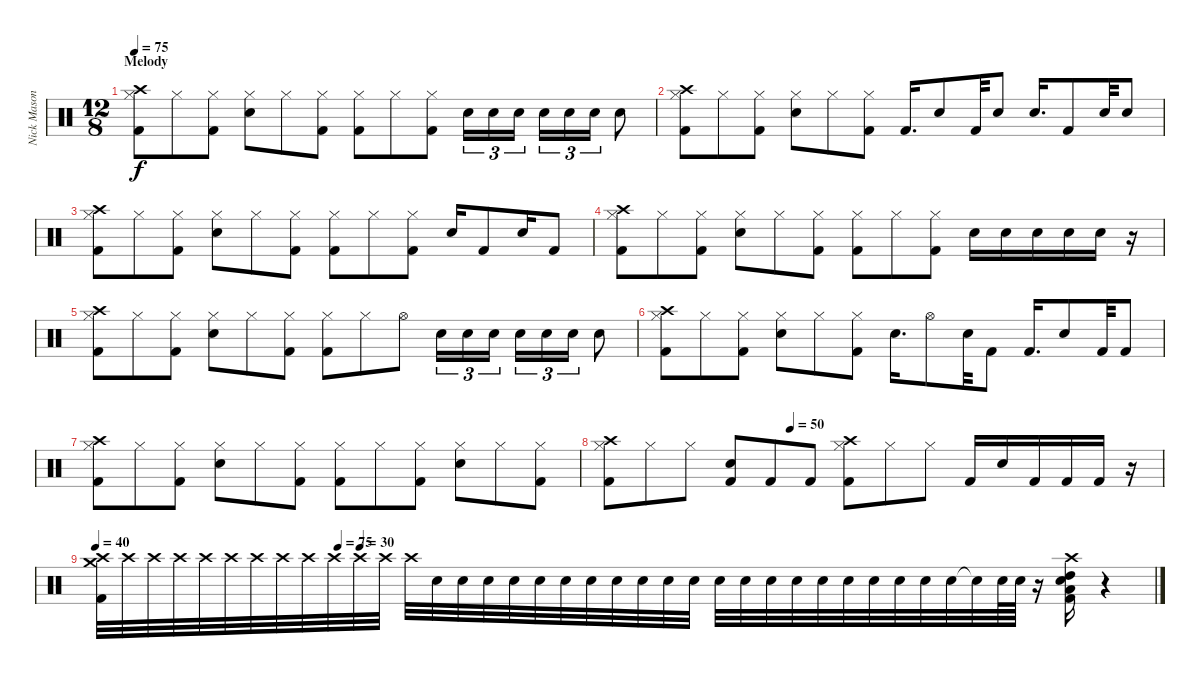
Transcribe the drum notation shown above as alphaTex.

\track ("Nick Mason (Drums)" "Nick Mason") {instrument percussion}
\staff {score}
\articulation defaults
\ts (12 8)
\section ("" "Melody")
\tempo 75
\clef neutral
\ks c
("Crash high (hit)" "Hi-Hat (closed)" "Kick (hit) 2").8{dy f} "Hi-Hat (closed)".8 ("Hi-Hat (closed)" "Kick (hit) 2").8 ("Hi-Hat (closed)" "Snare (hit) 2").8 "Hi-Hat (closed)".8 ("Hi-Hat (closed)" "Kick (hit) 2").8 ("Hi-Hat (closed)" "Kick (hit) 2").8 "Hi-Hat (closed)".8 ("Hi-Hat (closed)" "Kick (hit) 2").8 "Snare (hit) 2".16{tu (3 2)} "Snare (hit) 2".16{tu (3 2)} "Snare (hit) 2".16{tu (3 2)} "Snare (hit) 2".16{tu (3 2)} "Snare (hit) 2".16{tu (3 2)} "Snare (hit) 2".16{tu (3 2)} "Snare (hit) 2".8 |
("Crash high (hit)" "Hi-Hat (closed)" "Kick (hit) 2").8 "Hi-Hat (closed)".8 ("Hi-Hat (closed)" "Kick (hit) 2").8 ("Hi-Hat (closed)" "Snare (hit) 2").8 "Hi-Hat (closed)".8 ("Hi-Hat (closed)" "Kick (hit) 2").8 "Kick (hit) 2".16{d} "Snare (hit) 2".8 "Kick (hit) 2".32 "Snare (hit) 2".8 "Snare (hit) 2".16{d} "Kick (hit) 2".8 "Snare (hit) 2".32 "Snare (hit) 2".8 |
("Crash high (hit)" "Hi-Hat (closed)" "Kick (hit) 2").8 "Hi-Hat (closed)".8 ("Hi-Hat (closed)" "Kick (hit) 2").8 ("Hi-Hat (closed)" "Snare (hit) 2").8 "Hi-Hat (closed)".8 ("Hi-Hat (closed)" "Kick (hit) 2").8 ("Hi-Hat (closed)" "Kick (hit) 2").8 "Hi-Hat (closed)".8 ("Hi-Hat (closed)" "Kick (hit) 2").8 "Snare (hit) 2".16 "Kick (hit) 2".8 "Snare (hit) 2".16 "Kick (hit) 2".8 |
("Crash high (hit)" "Hi-Hat (closed)" "Kick (hit) 2").8 "Hi-Hat (closed)".8 ("Hi-Hat (closed)" "Kick (hit) 2").8 ("Hi-Hat (closed)" "Snare (hit) 2").8 "Hi-Hat (closed)".8 ("Hi-Hat (closed)" "Kick (hit) 2").8 ("Hi-Hat (closed)" "Kick (hit) 2").8 "Hi-Hat (closed)".8 ("Hi-Hat (closed)" "Kick (hit) 2").8 "Snare (hit) 2".16 "Snare (hit) 2".16 "Snare (hit) 2".16 "Snare (hit) 2".16 "Snare (hit) 2".16 r.16 |
("Crash high (hit)" "Hi-Hat (closed)" "Kick (hit) 2").8 "Hi-Hat (closed)".8 ("Hi-Hat (closed)" "Kick (hit) 2").8 ("Hi-Hat (closed)" "Snare (hit) 2").8 "Hi-Hat (closed)".8 ("Hi-Hat (closed)" "Kick (hit) 2").8 ("Hi-Hat (closed)" "Kick (hit) 2").8 "Hi-Hat (closed)".8 "Hi-Hat (open)".8 "Snare (hit) 2".16{tu (3 2)} "Snare (hit) 2".16{tu (3 2)} "Snare (hit) 2".16{tu (3 2)} "Snare (hit) 2".16{tu (3 2)} "Snare (hit) 2".16{tu (3 2)} "Snare (hit) 2".16{tu (3 2)} "Snare (hit) 2".8 |
("Crash high (hit)" "Hi-Hat (closed)" "Kick (hit) 2").8 "Hi-Hat (closed)".8 ("Hi-Hat (closed)" "Kick (hit) 2").8 ("Hi-Hat (closed)" "Snare (hit) 2").8 "Hi-Hat (closed)".8 ("Hi-Hat (closed)" "Kick (hit) 2").8 "Snare (hit) 2".16{d} "Hi-Hat (open)".8 "Snare (hit) 2".32 "Kick (hit) 2".8 "Kick (hit) 2".16{d} "Snare (hit) 2".8 "Kick (hit) 2".32 "Kick (hit) 2".8 |
("Crash high (hit)" "Hi-Hat (closed)" "Kick (hit) 2").8 "Hi-Hat (closed)".8 ("Hi-Hat (closed)" "Kick (hit) 2").8 ("Hi-Hat (closed)" "Snare (hit) 2").8 "Hi-Hat (closed)".8 ("Hi-Hat (closed)" "Kick (hit) 2").8 ("Hi-Hat (closed)" "Kick (hit) 2").8 "Hi-Hat (closed)".8 ("Hi-Hat (closed)" "Kick (hit) 2").8 ("Hi-Hat (closed)" "Snare (hit) 2").8 "Hi-Hat (closed)".8 ("Hi-Hat (closed)" "Kick (hit) 2").8 |
\tempo (50 0.3333333333333333)
("Crash high (hit)" "Hi-Hat (closed)" "Kick (hit) 2").8 "Hi-Hat (closed)".8 "Hi-Hat (closed)".8 ("Snare (hit) 2" "Kick (hit) 2").8 "Kick (hit) 2".8 "Kick (hit) 2".8 ("Crash high (hit)" "Hi-Hat (closed)" "Kick (hit) 2").8 "Hi-Hat (closed)".8 "Hi-Hat (closed)".8 "Kick (hit) 2".16 "Snare (hit) 2".16 "Kick (hit) 2".16 "Kick (hit) 2".16 "Kick (hit) 2".16 r.16 |
\tempo 40
\tempo (75 0.22916666666666666)
\tempo (30 0.25)
("Crash high (hit)" "Kick (hit) 2" "Crash medium (hit)").32 "Crash high (hit)".32 "Crash high (hit)".32 "Crash high (hit)".32 "Crash high (hit)".32 "Crash high (hit)".32 "Crash high (hit)".32 "Crash high (hit)".32 "Crash high (hit)".32 "Crash high (hit)".32 "Crash high (hit)".32 "Crash high (hit)".32 "Crash high (hit)".32 "Snare (hit) 2".32 "Snare (hit) 2".32 "Snare (hit) 2".32 "Snare (hit) 2".32 "Snare (hit) 2".32 "Snare (hit) 2".32 "Snare (hit) 2".32 "Snare (hit) 2".32 "Snare (hit) 2".32 "Snare (hit) 2".32 "Snare (hit) 2".32 "Snare (hit) 2".32 "Snare (hit) 2".32 "Snare (hit) 2".32 "Snare (hit) 2".32 "Snare (hit) 2".32 "Snare (hit) 2".32 "Snare (hit) 2".32 "Snare (hit) 2".32 "Snare (hit) 2".32 "Snare (hit) 2".32 "Snare (hit) 2"{t}.32 "Snare (hit) 2".64 "Snare (hit) 2".64 r.16 ("Crash high (hit)" "Snare (hit) 2" "High Tom (hit)" "Low Floor Tom (hit)" "Kick (hit) 2").16 r.4
